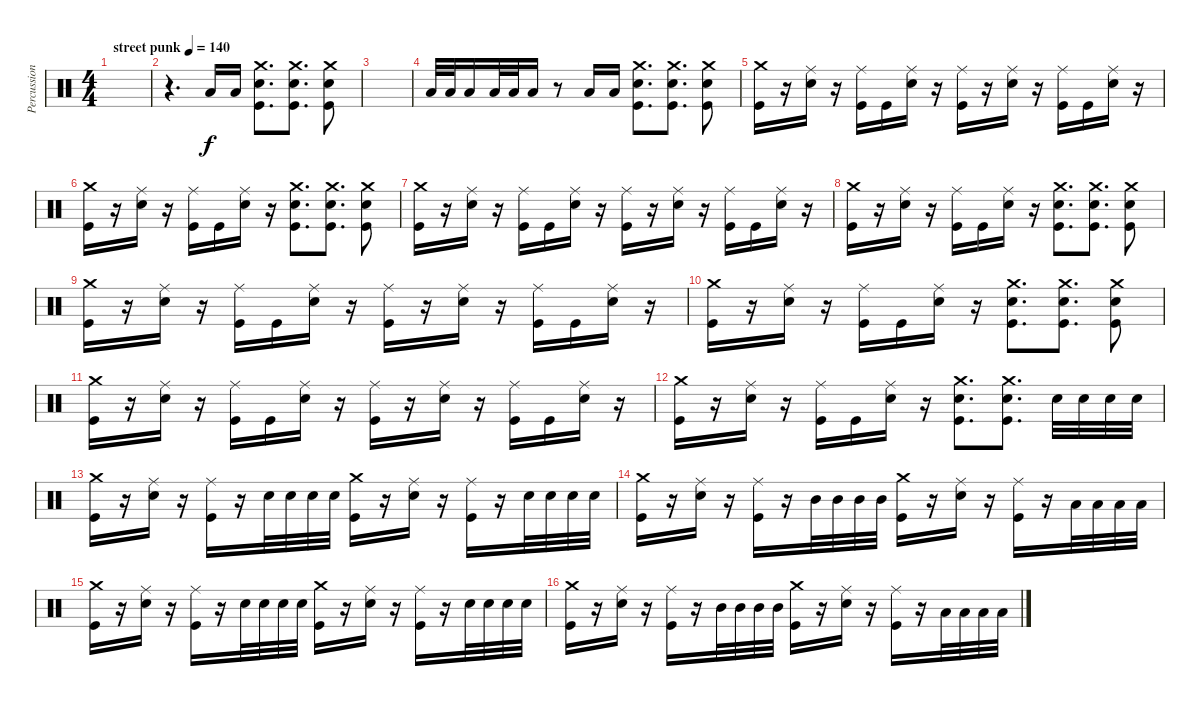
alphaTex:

\track ("Percussions( Gearbox )" "Percussion") {instrument percussion}
\staff {score}
\articulation defaults
\ts (4 4)
\tempo (140 "street punk")
\clef neutral
\ks c
|
r.4{d} "Low Tom (hit)".16 "Low Tom (hit)".16 ("Crash medium (hit)" "Snare (hit) 2" "Kick (hit)").8{d} ("Crash medium (hit)" "Snare (hit) 2" "Kick (hit)").8{d} ("Crash medium (hit)" "Snare (hit) 2" "Kick (hit)").8 |
|
"Low Tom (hit)".32 "Low Tom (hit)".32 "Low Tom (hit)".16 "Low Tom (hit)".32 "Low Tom (hit)".32 "Low Tom (hit)".16 r.8 "Low Tom (hit)".16 "Low Tom (hit)".16 ("Crash medium (hit)" "Snare (hit) 2" "Kick (hit)").8{d} ("Crash medium (hit)" "Snare (hit) 2" "Kick (hit)").8{d} ("Crash medium (hit)" "Snare (hit) 2" "Kick (hit)").8 |
("Crash medium (hit)" "Kick (hit)").16 r.16 ("Ride (middle)" "Snare (hit) 2").16 r.16 ("Ride (middle)" "Kick (hit)").16 "Kick (hit)".16 ("Ride (middle)" "Snare (hit) 2").16 r.16 ("Ride (middle)" "Kick (hit)").16 r.16 ("Ride (middle)" "Snare (hit) 2").16 r.16 ("Ride (middle)" "Kick (hit)").16 "Kick (hit)".16 ("Ride (middle)" "Snare (hit) 2").16 r.16 |
("Crash medium (hit)" "Kick (hit)").16 r.16 ("Ride (middle)" "Snare (hit) 2").16 r.16 ("Ride (middle)" "Kick (hit)").16 "Kick (hit)".16 ("Ride (middle)" "Snare (hit) 2").16 r.16 ("Crash medium (hit)" "Snare (hit) 2" "Kick (hit)").8{d} ("Crash medium (hit)" "Snare (hit) 2" "Kick (hit)").8{d} ("Crash medium (hit)" "Snare (hit) 2" "Kick (hit)").8 |
("Crash medium (hit)" "Kick (hit)").16 r.16 ("Ride (middle)" "Snare (hit) 2").16 r.16 ("Ride (middle)" "Kick (hit)").16 "Kick (hit)".16 ("Ride (middle)" "Snare (hit) 2").16 r.16 ("Ride (middle)" "Kick (hit)").16 r.16 ("Ride (middle)" "Snare (hit) 2").16 r.16 ("Ride (middle)" "Kick (hit)").16 "Kick (hit)".16 ("Ride (middle)" "Snare (hit) 2").16 r.16 |
("Crash medium (hit)" "Kick (hit)").16 r.16 ("Ride (middle)" "Snare (hit) 2").16 r.16 ("Ride (middle)" "Kick (hit)").16 "Kick (hit)".16 ("Ride (middle)" "Snare (hit) 2").16 r.16 ("Crash medium (hit)" "Snare (hit) 2" "Kick (hit)").8{d} ("Crash medium (hit)" "Snare (hit) 2" "Kick (hit)").8{d} ("Crash medium (hit)" "Snare (hit) 2" "Kick (hit)").8 |
("Crash medium (hit)" "Kick (hit)").16 r.16 ("Ride (middle)" "Snare (hit) 2").16 r.16 ("Ride (middle)" "Kick (hit)").16 "Kick (hit)".16 ("Ride (middle)" "Snare (hit) 2").16 r.16 ("Ride (middle)" "Kick (hit)").16 r.16 ("Ride (middle)" "Snare (hit) 2").16 r.16 ("Ride (middle)" "Kick (hit)").16 "Kick (hit)".16 ("Ride (middle)" "Snare (hit) 2").16 r.16 |
("Crash medium (hit)" "Kick (hit)").16 r.16 ("Ride (middle)" "Snare (hit) 2").16 r.16 ("Ride (middle)" "Kick (hit)").16 "Kick (hit)".16 ("Ride (middle)" "Snare (hit) 2").16 r.16 ("Crash medium (hit)" "Snare (hit) 2" "Kick (hit)").8{d} ("Crash medium (hit)" "Snare (hit) 2" "Kick (hit)").8{d} ("Crash medium (hit)" "Snare (hit) 2" "Kick (hit)").8 |
("Crash medium (hit)" "Kick (hit)").16 r.16 ("Ride (middle)" "Snare (hit) 2").16 r.16 ("Ride (middle)" "Kick (hit)").16 "Kick (hit)".16 ("Ride (middle)" "Snare (hit) 2").16 r.16 ("Ride (middle)" "Kick (hit)").16 r.16 ("Ride (middle)" "Snare (hit) 2").16 r.16 ("Ride (middle)" "Kick (hit)").16 "Kick (hit)".16 ("Ride (middle)" "Snare (hit) 2").16 r.16 |
("Crash medium (hit)" "Kick (hit)").16 r.16 ("Ride (middle)" "Snare (hit) 2").16 r.16 ("Ride (middle)" "Kick (hit)").16 "Kick (hit)".16 ("Ride (middle)" "Snare (hit) 2").16 r.16 ("Crash medium (hit)" "Snare (hit) 2" "Kick (hit)").8{d} ("Crash medium (hit)" "Snare (hit) 2" "Kick (hit)").8{d} "Snare (hit) 2".32 "Snare (hit) 2".32 "Snare (hit) 2".32 "Snare (hit) 2".32 |
("Crash medium (hit)" "Kick (hit)").16 r.16 ("Ride (middle)" "Snare (hit) 2").16 r.16 ("Ride (middle)" "Kick (hit)").16 r.16 "Snare (hit) 2".32 "Snare (hit) 2".32 "Snare (hit) 2".32 "Snare (hit) 2".32 ("Crash medium (hit)" "Kick (hit)").16 r.16 ("Ride (middle)" "Snare (hit) 2").16 r.16 ("Ride (middle)" "Kick (hit)").16 r.16 "Snare (hit) 2".32 "Snare (hit) 2".32 "Snare (hit) 2".32 "Snare (hit) 2".32 |
("Crash medium (hit)" "Kick (hit)").16 r.16 ("Ride (middle)" "Snare (hit) 2").16 r.16 ("Ride (middle)" "Kick (hit)").16 r.16 "Mid Tom (hit)".32 "Mid Tom (hit)".32 "Mid Tom (hit)".32 "Mid Tom (hit)".32 ("Crash medium (hit)" "Kick (hit)").16 r.16 ("Ride (middle)" "Snare (hit) 2").16 r.16 ("Ride (middle)" "Kick (hit)").16 r.16 "Low Tom (hit)".32 "Low Tom (hit)".32 "Low Tom (hit)".32 "Low Tom (hit)".32 |
("Crash medium (hit)" "Kick (hit)").16 r.16 ("Ride (middle)" "Snare (hit) 2").16 r.16 ("Ride (middle)" "Kick (hit)").16 r.16 "Snare (hit) 2".32 "Snare (hit) 2".32 "Snare (hit) 2".32 "Snare (hit) 2".32 ("Crash medium (hit)" "Kick (hit)").16 r.16 ("Ride (middle)" "Snare (hit) 2").16 r.16 ("Ride (middle)" "Kick (hit)").16 r.16 "Snare (hit) 2".32 "Snare (hit) 2".32 "Snare (hit) 2".32 "Snare (hit) 2".32 |
("Crash medium (hit)" "Kick (hit)").16 r.16 ("Ride (middle)" "Snare (hit) 2").16 r.16 ("Ride (middle)" "Kick (hit)").16 r.16 "Mid Tom (hit)".32 "Mid Tom (hit)".32 "Mid Tom (hit)".32 "Mid Tom (hit)".32 ("Crash medium (hit)" "Kick (hit)").16 r.16 ("Ride (middle)" "Snare (hit) 2").16 r.16 ("Ride (middle)" "Kick (hit)").16 r.16 "Low Tom (hit)".32 "Low Tom (hit)".32 "Low Tom (hit)".32 "Low Tom (hit)".32
